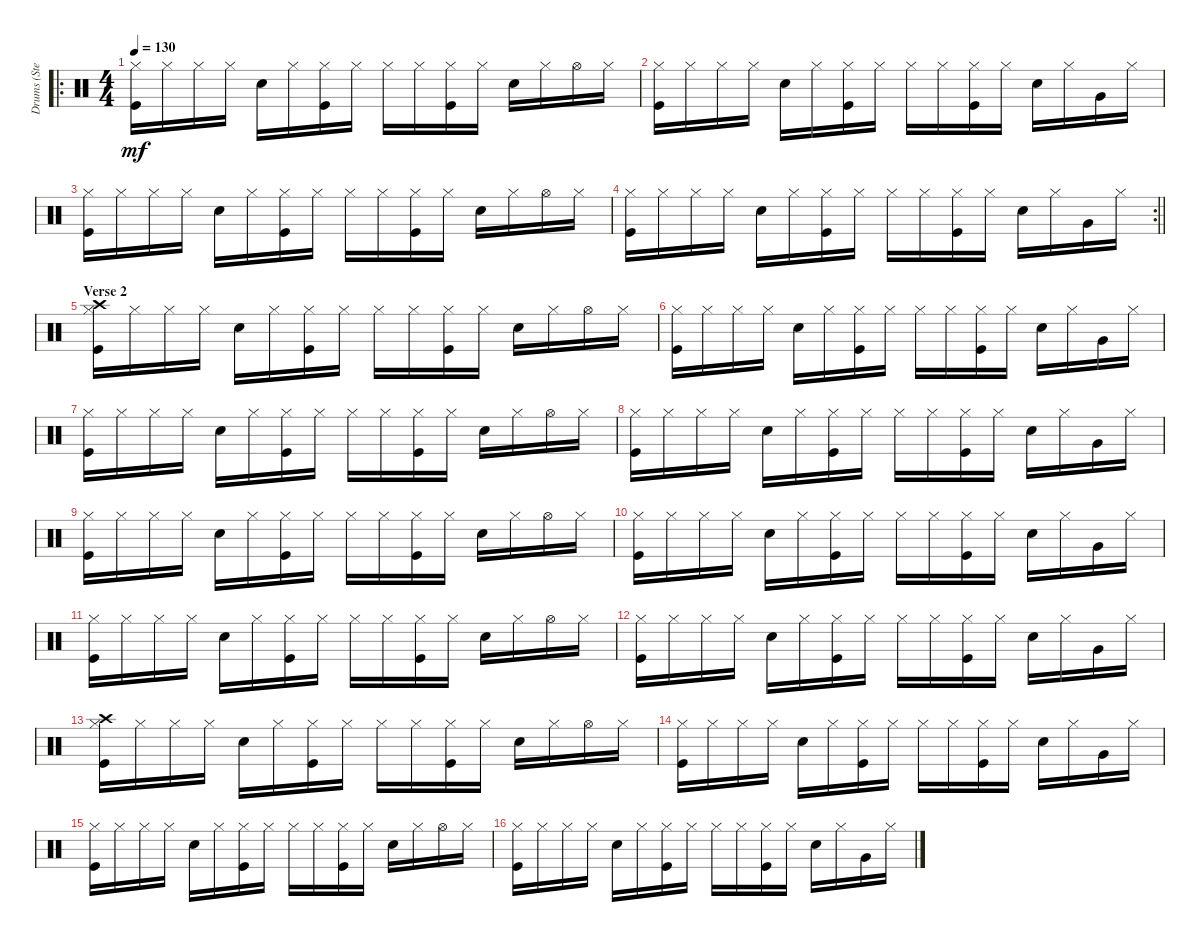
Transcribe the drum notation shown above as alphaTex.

\track ("Drums (Stephen Morris)" "Drums (Ste") {instrument percussion}
\staff {score}
\articulation defaults
\ro
\ts (4 4)
\tempo 130
\clef neutral
\ks c
("Hi-Hat (closed)" "Kick (hit)").16{dy mf} "Hi-Hat (closed)".16 "Hi-Hat (closed)".16 "Hi-Hat (closed)".16 "Snare (hit) 2".16 "Hi-Hat (closed)".16 ("Kick (hit)" "Hi-Hat (closed)").16 "Hi-Hat (closed)".16 "Hi-Hat (closed)".16 "Hi-Hat (closed)".16 ("Kick (hit)" "Hi-Hat (closed)").16 "Hi-Hat (closed)".16 "Snare (hit) 2".16 "Hi-Hat (closed)".16 "Hi-Hat (open)".16 "Hi-Hat (closed)".16 |
("Hi-Hat (closed)" "Kick (hit)").16 "Hi-Hat (closed)".16 "Hi-Hat (closed)".16 "Hi-Hat (closed)".16 "Snare (hit) 2".16 "Hi-Hat (closed)".16 ("Kick (hit)" "Hi-Hat (closed)").16 "Hi-Hat (closed)".16 "Hi-Hat (closed)".16 "Hi-Hat (closed)".16 ("Kick (hit)" "Hi-Hat (closed)").16 "Hi-Hat (closed)".16 "Snare (hit) 2".16 "Hi-Hat (closed)".16 "Very Low Tom (hit)".16 "Hi-Hat (closed)".16 |
("Hi-Hat (closed)" "Kick (hit)").16 "Hi-Hat (closed)".16 "Hi-Hat (closed)".16 "Hi-Hat (closed)".16 "Snare (hit) 2".16 "Hi-Hat (closed)".16 ("Hi-Hat (closed)" "Kick (hit)").16 "Hi-Hat (closed)".16 "Hi-Hat (closed)".16 "Hi-Hat (closed)".16 ("Kick (hit)" "Hi-Hat (closed)").16 "Hi-Hat (closed)".16 "Snare (hit) 2".16 "Hi-Hat (closed)".16 "Hi-Hat (open)".16 "Hi-Hat (closed)".16 |
\rc 2
\barLineRight lightlight
("Kick (hit)" "Hi-Hat (closed)").16 "Hi-Hat (closed)".16 "Hi-Hat (closed)".16 "Hi-Hat (closed)".16 "Snare (hit) 2".16 "Hi-Hat (closed)".16 ("Hi-Hat (closed)" "Kick (hit)").16 "Hi-Hat (closed)".16 "Hi-Hat (closed)".16 "Hi-Hat (closed)".16 ("Hi-Hat (closed)" "Kick (hit)").16 "Hi-Hat (closed)".16 "Snare (hit) 2".16 "Hi-Hat (closed)".16 "Very Low Tom (hit)".16 "Hi-Hat (closed)".16 |
\section ("" "Verse 2")
("Crash high (hit)" "Hi-Hat (closed)" "Kick (hit)").16 "Hi-Hat (closed)".16 "Hi-Hat (closed)".16 "Hi-Hat (closed)".16 "Snare (hit) 2".16 "Hi-Hat (closed)".16 ("Kick (hit)" "Hi-Hat (closed)").16 "Hi-Hat (closed)".16 "Hi-Hat (closed)".16 "Hi-Hat (closed)".16 ("Kick (hit)" "Hi-Hat (closed)").16 "Hi-Hat (closed)".16 "Snare (hit) 2".16 "Hi-Hat (closed)".16 "Hi-Hat (open)".16 "Hi-Hat (closed)".16 |
("Kick (hit)" "Hi-Hat (closed)").16 "Hi-Hat (closed)".16 "Hi-Hat (closed)".16 "Hi-Hat (closed)".16 "Snare (hit) 2".16 "Hi-Hat (closed)".16 ("Hi-Hat (closed)" "Kick (hit)").16 "Hi-Hat (closed)".16 "Hi-Hat (closed)".16 "Hi-Hat (closed)".16 ("Hi-Hat (closed)" "Kick (hit)").16 "Hi-Hat (closed)".16 "Snare (hit) 2".16 "Hi-Hat (closed)".16 "Very Low Tom (hit)".16 "Hi-Hat (closed)".16 |
("Hi-Hat (closed)" "Kick (hit)").16 "Hi-Hat (closed)".16 "Hi-Hat (closed)".16 "Hi-Hat (closed)".16 "Snare (hit) 2".16 "Hi-Hat (closed)".16 ("Kick (hit)" "Hi-Hat (closed)").16 "Hi-Hat (closed)".16 "Hi-Hat (closed)".16 "Hi-Hat (closed)".16 ("Kick (hit)" "Hi-Hat (closed)").16 "Hi-Hat (closed)".16 "Snare (hit) 2".16 "Hi-Hat (closed)".16 "Hi-Hat (open)".16 "Hi-Hat (closed)".16 |
("Kick (hit)" "Hi-Hat (closed)").16 "Hi-Hat (closed)".16 "Hi-Hat (closed)".16 "Hi-Hat (closed)".16 "Snare (hit) 2".16 "Hi-Hat (closed)".16 ("Hi-Hat (closed)" "Kick (hit)").16 "Hi-Hat (closed)".16 "Hi-Hat (closed)".16 "Hi-Hat (closed)".16 ("Kick (hit)" "Hi-Hat (closed)").16 "Hi-Hat (closed)".16 "Snare (hit) 2".16 "Hi-Hat (closed)".16 "Very Low Tom (hit)".16 "Hi-Hat (closed)".16 |
("Hi-Hat (closed)" "Kick (hit)").16 "Hi-Hat (closed)".16 "Hi-Hat (closed)".16 "Hi-Hat (closed)".16 "Snare (hit) 2".16 "Hi-Hat (closed)".16 ("Kick (hit)" "Hi-Hat (closed)").16 "Hi-Hat (closed)".16 "Hi-Hat (closed)".16 "Hi-Hat (closed)".16 ("Kick (hit)" "Hi-Hat (closed)").16 "Hi-Hat (closed)".16 "Snare (hit) 2".16 "Hi-Hat (closed)".16 "Hi-Hat (open)".16 "Hi-Hat (closed)".16 |
("Kick (hit)" "Hi-Hat (closed)").16 "Hi-Hat (closed)".16 "Hi-Hat (closed)".16 "Hi-Hat (closed)".16 "Snare (hit) 2".16 "Hi-Hat (closed)".16 ("Kick (hit)" "Hi-Hat (closed)").16 "Hi-Hat (closed)".16 "Hi-Hat (closed)".16 "Hi-Hat (closed)".16 ("Kick (hit)" "Hi-Hat (closed)").16 "Hi-Hat (closed)".16 "Snare (hit) 2".16 "Hi-Hat (closed)".16 "Very Low Tom (hit)".16 "Hi-Hat (closed)".16 |
("Hi-Hat (closed)" "Kick (hit)").16 "Hi-Hat (closed)".16 "Hi-Hat (closed)".16 "Hi-Hat (closed)".16 "Snare (hit) 2".16 "Hi-Hat (closed)".16 ("Hi-Hat (closed)" "Kick (hit)").16 "Hi-Hat (closed)".16 "Hi-Hat (closed)".16 "Hi-Hat (closed)".16 ("Hi-Hat (closed)" "Kick (hit)").16 "Hi-Hat (closed)".16 "Snare (hit) 2".16 "Hi-Hat (closed)".16 "Hi-Hat (open)".16 "Hi-Hat (closed)".16 |
("Kick (hit)" "Hi-Hat (closed)").16 "Hi-Hat (closed)".16 "Hi-Hat (closed)".16 "Hi-Hat (closed)".16 "Snare (hit) 2".16 "Hi-Hat (closed)".16 ("Kick (hit)" "Hi-Hat (closed)").16 "Hi-Hat (closed)".16 "Hi-Hat (closed)".16 "Hi-Hat (closed)".16 ("Kick (hit)" "Hi-Hat (closed)").16 "Hi-Hat (closed)".16 "Snare (hit) 2".16 "Hi-Hat (closed)".16 "Very Low Tom (hit)".16 "Hi-Hat (closed)".16 |
("Crash high (hit)" "Hi-Hat (closed)" "Kick (hit)").16 "Hi-Hat (closed)".16 "Hi-Hat (closed)".16 "Hi-Hat (closed)".16 "Snare (hit) 2".16 "Hi-Hat (closed)".16 ("Hi-Hat (closed)" "Kick (hit)").16 "Hi-Hat (closed)".16 "Hi-Hat (closed)".16 "Hi-Hat (closed)".16 ("Hi-Hat (closed)" "Kick (hit)").16 "Hi-Hat (closed)".16 "Snare (hit) 2".16 "Hi-Hat (closed)".16 "Hi-Hat (open)".16 "Hi-Hat (closed)".16 |
("Hi-Hat (closed)" "Kick (hit)").16 "Hi-Hat (closed)".16 "Hi-Hat (closed)".16 "Hi-Hat (closed)".16 "Snare (hit) 2".16 "Hi-Hat (closed)".16 ("Hi-Hat (closed)" "Kick (hit)").16 "Hi-Hat (closed)".16 "Hi-Hat (closed)".16 "Hi-Hat (closed)".16 ("Hi-Hat (closed)" "Kick (hit)").16 "Hi-Hat (closed)".16 "Snare (hit) 2".16 "Hi-Hat (closed)".16 "Very Low Tom (hit)".16 "Hi-Hat (closed)".16 |
("Hi-Hat (closed)" "Kick (hit)").16 "Hi-Hat (closed)".16 "Hi-Hat (closed)".16 "Hi-Hat (closed)".16 "Snare (hit) 2".16 "Hi-Hat (closed)".16 ("Hi-Hat (closed)" "Kick (hit)").16 "Hi-Hat (closed)".16 "Hi-Hat (closed)".16 "Hi-Hat (closed)".16 ("Kick (hit)" "Hi-Hat (closed)").16 "Hi-Hat (closed)".16 "Snare (hit) 2".16 "Hi-Hat (closed)".16 "Hi-Hat (open)".16 "Hi-Hat (closed)".16 |
("Hi-Hat (closed)" "Kick (hit)").16 "Hi-Hat (closed)".16 "Hi-Hat (closed)".16 "Hi-Hat (closed)".16 "Snare (hit) 2".16 "Hi-Hat (closed)".16 ("Kick (hit)" "Hi-Hat (closed)").16 "Hi-Hat (closed)".16 "Hi-Hat (closed)".16 "Hi-Hat (closed)".16 ("Kick (hit)" "Hi-Hat (closed)").16 "Hi-Hat (closed)".16 "Snare (hit) 2".16 "Hi-Hat (closed)".16 "Very Low Tom (hit)".16 "Hi-Hat (closed)".16
